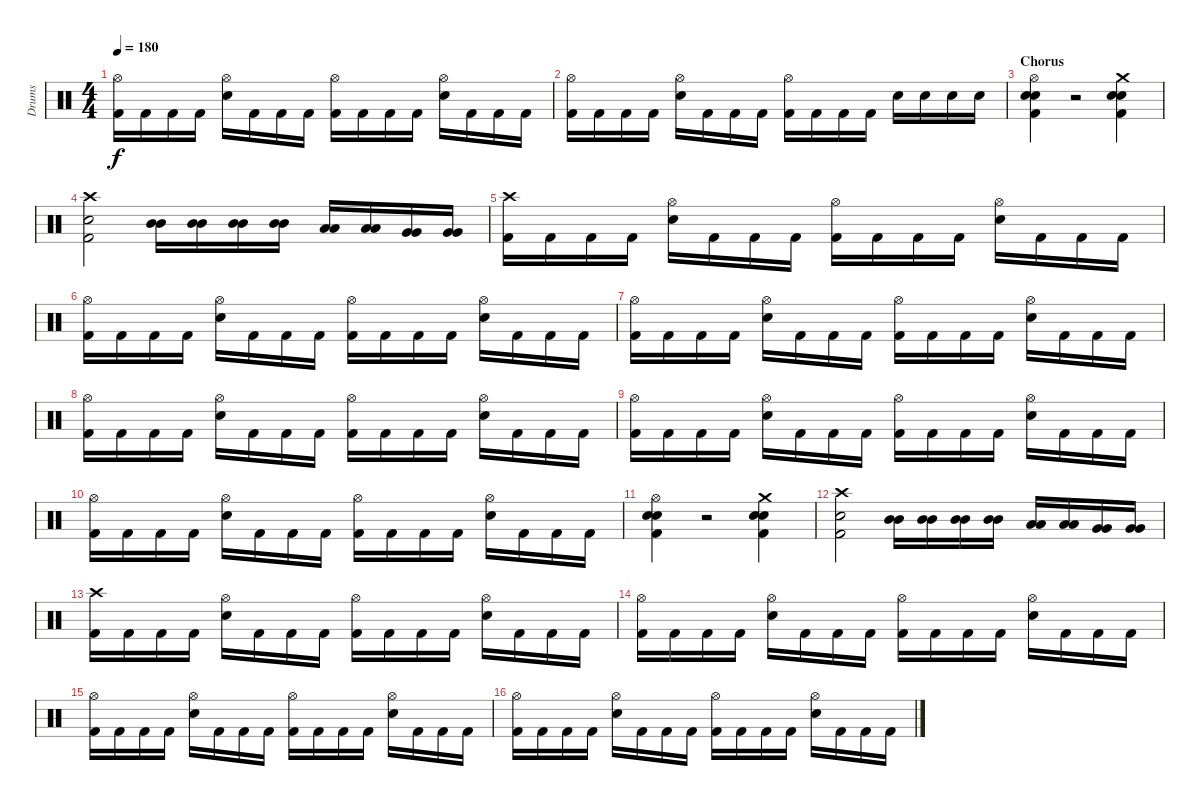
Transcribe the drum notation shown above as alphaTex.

\track ("Drums" "Drums") {instrument percussion}
\staff {score}
\articulation defaults
\ts (4 4)
\tempo 180
\clef neutral
\ks c
("Hi-Hat (open)" "Kick (hit) 2").16{dy f} "Kick (hit) 2".16 "Kick (hit) 2".16 "Kick (hit) 2".16 ("Hi-Hat (open)" "Snare (hit) 2").16 "Kick (hit) 2".16 "Kick (hit) 2".16 "Kick (hit) 2".16 ("Hi-Hat (open)" "Kick (hit) 2").16 "Kick (hit) 2".16 "Kick (hit) 2".16 "Kick (hit) 2".16 ("Hi-Hat (open)" "Snare (hit) 2").16 "Kick (hit) 2".16 "Kick (hit) 2".16 "Kick (hit) 2".16 |
("Hi-Hat (open)" "Kick (hit) 2").16 "Kick (hit) 2".16 "Kick (hit) 2".16 "Kick (hit) 2".16 ("Hi-Hat (open)" "Snare (hit) 2").16 "Kick (hit) 2".16 "Kick (hit) 2".16 "Kick (hit) 2".16 ("Hi-Hat (open)" "Kick (hit) 2").16 "Kick (hit) 2".16 "Kick (hit) 2".16 "Kick (hit) 2".16 "Snare (hit) 2".16 "Snare (hit) 2".16 "Snare (hit) 2".16 "Snare (hit) 2".16 |
\section ("" "Chorus")
("Hi-Hat (open)" "Snare (hit) 2" "Snare (hit) 2" "Kick (hit) 2").4 r.2 ("Crash medium (hit)" "Snare (hit) 2" "Snare (hit) 2" "Kick (hit) 2").4 |
("Crash high (hit)" "Snare (hit) 2" "Kick (hit) 2").2 ("Mid Tom (hit)" "Mid Tom (hit)").16 ("Mid Tom (hit)" "Mid Tom (hit)").16 ("Mid Tom (hit)" "Mid Tom (hit)").16 ("Mid Tom (hit)" "Mid Tom (hit)").16 ("Low Tom (hit)" "Low Tom (hit)").16 ("Low Tom (hit)" "Low Tom (hit)").16 ("Very Low Tom (hit)" "Very Low Tom (hit)").16 ("Very Low Tom (hit)" "Very Low Tom (hit)").16 |
("Crash high (hit)" "Kick (hit) 2").16 "Kick (hit) 2".16 "Kick (hit) 2".16 "Kick (hit) 2".16 ("Hi-Hat (open)" "Snare (hit) 2").16 "Kick (hit) 2".16 "Kick (hit) 2".16 "Kick (hit) 2".16 ("Hi-Hat (open)" "Kick (hit) 2").16 "Kick (hit) 2".16 "Kick (hit) 2".16 "Kick (hit) 2".16 ("Hi-Hat (open)" "Snare (hit) 2").16 "Kick (hit) 2".16 "Kick (hit) 2".16 "Kick (hit) 2".16 |
("Hi-Hat (open)" "Kick (hit) 2").16 "Kick (hit) 2".16 "Kick (hit) 2".16 "Kick (hit) 2".16 ("Hi-Hat (open)" "Snare (hit) 2").16 "Kick (hit) 2".16 "Kick (hit) 2".16 "Kick (hit) 2".16 ("Hi-Hat (open)" "Kick (hit) 2").16 "Kick (hit) 2".16 "Kick (hit) 2".16 "Kick (hit) 2".16 ("Hi-Hat (open)" "Snare (hit) 2").16 "Kick (hit) 2".16 "Kick (hit) 2".16 "Kick (hit) 2".16 |
("Hi-Hat (open)" "Kick (hit) 2").16 "Kick (hit) 2".16 "Kick (hit) 2".16 "Kick (hit) 2".16 ("Hi-Hat (open)" "Snare (hit) 2").16 "Kick (hit) 2".16 "Kick (hit) 2".16 "Kick (hit) 2".16 ("Hi-Hat (open)" "Kick (hit) 2").16 "Kick (hit) 2".16 "Kick (hit) 2".16 "Kick (hit) 2".16 ("Hi-Hat (open)" "Snare (hit) 2").16 "Kick (hit) 2".16 "Kick (hit) 2".16 "Kick (hit) 2".16 |
("Hi-Hat (open)" "Kick (hit) 2").16 "Kick (hit) 2".16 "Kick (hit) 2".16 "Kick (hit) 2".16 ("Hi-Hat (open)" "Snare (hit) 2").16 "Kick (hit) 2".16 "Kick (hit) 2".16 "Kick (hit) 2".16 ("Hi-Hat (open)" "Kick (hit) 2").16 "Kick (hit) 2".16 "Kick (hit) 2".16 "Kick (hit) 2".16 ("Hi-Hat (open)" "Snare (hit) 2").16 "Kick (hit) 2".16 "Kick (hit) 2".16 "Kick (hit) 2".16 |
("Hi-Hat (open)" "Kick (hit) 2").16 "Kick (hit) 2".16 "Kick (hit) 2".16 "Kick (hit) 2".16 ("Hi-Hat (open)" "Snare (hit) 2").16 "Kick (hit) 2".16 "Kick (hit) 2".16 "Kick (hit) 2".16 ("Hi-Hat (open)" "Kick (hit) 2").16 "Kick (hit) 2".16 "Kick (hit) 2".16 "Kick (hit) 2".16 ("Hi-Hat (open)" "Snare (hit) 2").16 "Kick (hit) 2".16 "Kick (hit) 2".16 "Kick (hit) 2".16 |
("Hi-Hat (open)" "Kick (hit) 2").16 "Kick (hit) 2".16 "Kick (hit) 2".16 "Kick (hit) 2".16 ("Hi-Hat (open)" "Snare (hit) 2").16 "Kick (hit) 2".16 "Kick (hit) 2".16 "Kick (hit) 2".16 ("Hi-Hat (open)" "Kick (hit) 2").16 "Kick (hit) 2".16 "Kick (hit) 2".16 "Kick (hit) 2".16 ("Hi-Hat (open)" "Snare (hit) 2").16 "Kick (hit) 2".16 "Kick (hit) 2".16 "Kick (hit) 2".16 |
("Hi-Hat (open)" "Snare (hit) 2" "Snare (hit) 2" "Kick (hit) 2").4 r.2 ("Crash medium (hit)" "Snare (hit) 2" "Snare (hit) 2" "Kick (hit) 2").4 |
("Crash high (hit)" "Snare (hit) 2" "Kick (hit) 2").2 ("Mid Tom (hit)" "Mid Tom (hit)").16 ("Mid Tom (hit)" "Mid Tom (hit)").16 ("Mid Tom (hit)" "Mid Tom (hit)").16 ("Mid Tom (hit)" "Mid Tom (hit)").16 ("Low Tom (hit)" "Low Tom (hit)").16 ("Low Tom (hit)" "Low Tom (hit)").16 ("Very Low Tom (hit)" "Very Low Tom (hit)").16 ("Very Low Tom (hit)" "Very Low Tom (hit)").16 |
("Crash high (hit)" "Kick (hit) 2").16 "Kick (hit) 2".16 "Kick (hit) 2".16 "Kick (hit) 2".16 ("Hi-Hat (open)" "Snare (hit) 2").16 "Kick (hit) 2".16 "Kick (hit) 2".16 "Kick (hit) 2".16 ("Hi-Hat (open)" "Kick (hit) 2").16 "Kick (hit) 2".16 "Kick (hit) 2".16 "Kick (hit) 2".16 ("Hi-Hat (open)" "Snare (hit) 2").16 "Kick (hit) 2".16 "Kick (hit) 2".16 "Kick (hit) 2".16 |
("Hi-Hat (open)" "Kick (hit) 2").16 "Kick (hit) 2".16 "Kick (hit) 2".16 "Kick (hit) 2".16 ("Hi-Hat (open)" "Snare (hit) 2").16 "Kick (hit) 2".16 "Kick (hit) 2".16 "Kick (hit) 2".16 ("Hi-Hat (open)" "Kick (hit) 2").16 "Kick (hit) 2".16 "Kick (hit) 2".16 "Kick (hit) 2".16 ("Hi-Hat (open)" "Snare (hit) 2").16 "Kick (hit) 2".16 "Kick (hit) 2".16 "Kick (hit) 2".16 |
("Hi-Hat (open)" "Kick (hit) 2").16 "Kick (hit) 2".16 "Kick (hit) 2".16 "Kick (hit) 2".16 ("Hi-Hat (open)" "Snare (hit) 2").16 "Kick (hit) 2".16 "Kick (hit) 2".16 "Kick (hit) 2".16 ("Hi-Hat (open)" "Kick (hit) 2").16 "Kick (hit) 2".16 "Kick (hit) 2".16 "Kick (hit) 2".16 ("Hi-Hat (open)" "Snare (hit) 2").16 "Kick (hit) 2".16 "Kick (hit) 2".16 "Kick (hit) 2".16 |
("Hi-Hat (open)" "Kick (hit) 2").16 "Kick (hit) 2".16 "Kick (hit) 2".16 "Kick (hit) 2".16 ("Hi-Hat (open)" "Snare (hit) 2").16 "Kick (hit) 2".16 "Kick (hit) 2".16 "Kick (hit) 2".16 ("Hi-Hat (open)" "Kick (hit) 2").16 "Kick (hit) 2".16 "Kick (hit) 2".16 "Kick (hit) 2".16 ("Hi-Hat (open)" "Snare (hit) 2").16 "Kick (hit) 2".16 "Kick (hit) 2".16 "Kick (hit) 2".16
